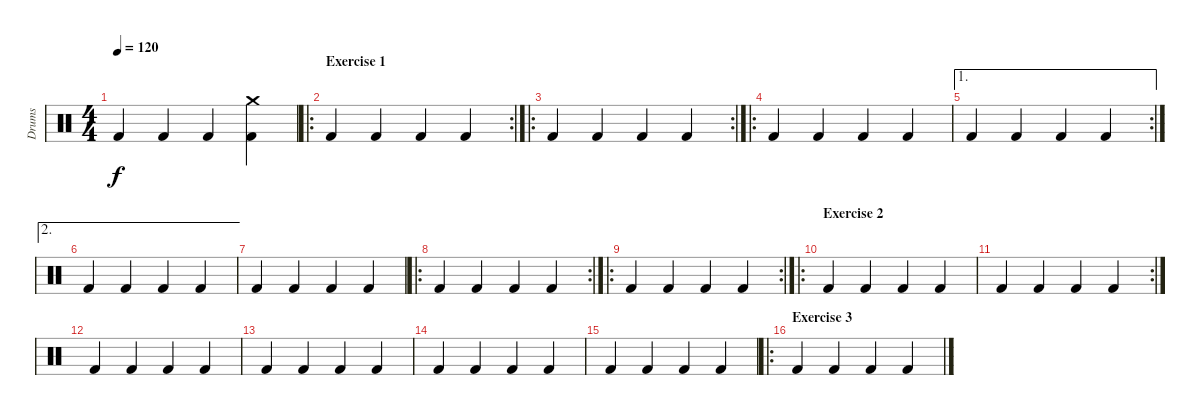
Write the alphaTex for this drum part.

\track ("Drums" "Drums") {instrument percussion}
\staff {score}
\articulation defaults
\ts (4 4)
\tempo 120
\clef neutral
\ks c "Kick (hit) 2".4{dy f} "Kick (hit) 2".4 "Kick (hit) 2".4
("Crash medium (hit)" "Kick (hit) 2").4 |
\ro
\rc 2
\section ("" "Exercise 1")
"Kick (hit) 2".4 "Kick (hit) 2".4 "Kick (hit) 2".4 "Kick (hit) 2".4 |
\ro
\rc 2 "Kick (hit) 2".4 "Kick (hit) 2".4 "Kick (hit) 2".4 "Kick (hit) 2".4
|
\ro "Kick (hit) 2".4 "Kick (hit) 2".4 "Kick (hit) 2".4 "Kick (hit) 2".4
|
\ae 1
\rc 2 "Kick (hit) 2".4 "Kick (hit) 2".4 "Kick (hit) 2".4 "Kick (hit) 2".4
|
\ae 2 "Kick (hit) 2".4 "Kick (hit) 2".4 "Kick (hit) 2".4 "Kick (hit) 2".4
|
"Kick (hit) 2".4 "Kick (hit) 2".4 "Kick (hit) 2".4 "Kick (hit) 2".4 |
\ro
\rc 2 "Kick (hit) 2".4 "Kick (hit) 2".4 "Kick (hit) 2".4 "Kick (hit) 2".4
|
\ro
\rc 2 "Kick (hit) 2".4 "Kick (hit) 2".4 "Kick (hit) 2".4 "Kick (hit) 2".4
|
\ro
\section ("" "Exercise 2")
"Kick (hit) 2".4 "Kick (hit) 2".4 "Kick (hit) 2".4 "Kick (hit) 2".4 |
\rc 2 "Kick (hit) 2".4 "Kick (hit) 2".4 "Kick (hit) 2".4 "Kick (hit) 2".4
|
"Kick (hit) 2".4 "Kick (hit) 2".4 "Kick (hit) 2".4 "Kick (hit) 2".4 |
"Kick (hit) 2".4 "Kick (hit) 2".4 "Kick (hit) 2".4 "Kick (hit) 2".4 |
"Kick (hit) 2".4 "Kick (hit) 2".4 "Kick (hit) 2".4 "Kick (hit) 2".4 |
"Kick (hit) 2".4 "Kick (hit) 2".4 "Kick (hit) 2".4 "Kick (hit) 2".4 |
\ro
\section ("" "Exercise 3")
"Kick (hit) 2".4 "Kick (hit) 2".4 "Kick (hit) 2".4 "Kick (hit) 2".4
